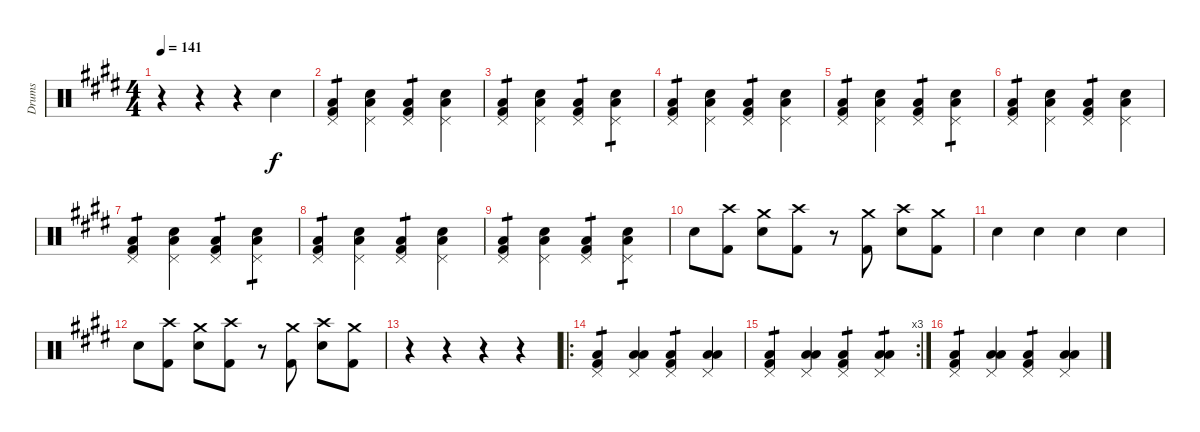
\track ("Drums" "Drums") {instrument percussion}
\staff {score}
\articulation defaults
\ts (4 4)
\tempo 141
\clef neutral
\ks e
r.4{dy f} r.4 r.4 "Snare (hit) 2".4 |
("Kick (hit) 2" "Pedal Hi-Hat (hit)" "Low Floor Tom (hit)").4{tp 1} ("Snare (hit) 2" "Pedal Hi-Hat (hit)" "Low Floor Tom (hit)").4 ("Kick (hit) 2" "Pedal Hi-Hat (hit)" "Low Floor Tom (hit)").4{tp 1} ("Snare (hit) 2" "Pedal Hi-Hat (hit)" "Low Floor Tom (hit)").4 |
("Kick (hit) 2" "Pedal Hi-Hat (hit)" "Low Floor Tom (hit)").4{tp 1} ("Snare (hit) 2" "Pedal Hi-Hat (hit)" "Low Floor Tom (hit)").4 ("Kick (hit) 2" "Pedal Hi-Hat (hit)" "Low Floor Tom (hit)").4{tp 1} ("Snare (hit) 2" "Pedal Hi-Hat (hit)" "Low Floor Tom (hit)").4{tp 1} |
("Kick (hit) 2" "Pedal Hi-Hat (hit)" "Low Floor Tom (hit)").4{tp 1} ("Snare (hit) 2" "Pedal Hi-Hat (hit)" "Low Floor Tom (hit)").4 ("Kick (hit) 2" "Pedal Hi-Hat (hit)" "Low Floor Tom (hit)").4{tp 1} ("Snare (hit) 2" "Pedal Hi-Hat (hit)" "Low Floor Tom (hit)").4 |
("Kick (hit) 2" "Pedal Hi-Hat (hit)" "Low Floor Tom (hit)").4{tp 1} ("Snare (hit) 2" "Pedal Hi-Hat (hit)" "Low Floor Tom (hit)").4 ("Kick (hit) 2" "Pedal Hi-Hat (hit)" "Low Floor Tom (hit)").4{tp 1} ("Snare (hit) 2" "Pedal Hi-Hat (hit)" "Low Floor Tom (hit)").4{tp 1} |
("Kick (hit) 2" "Pedal Hi-Hat (hit)" "Low Floor Tom (hit)").4{tp 1} ("Snare (hit) 2" "Pedal Hi-Hat (hit)" "Low Floor Tom (hit)").4 ("Kick (hit) 2" "Pedal Hi-Hat (hit)" "Low Floor Tom (hit)").4{tp 1} ("Snare (hit) 2" "Pedal Hi-Hat (hit)" "Low Floor Tom (hit)").4 |
("Kick (hit) 2" "Pedal Hi-Hat (hit)" "Low Floor Tom (hit)").4{tp 1} ("Snare (hit) 2" "Pedal Hi-Hat (hit)" "Low Floor Tom (hit)").4 ("Kick (hit) 2" "Pedal Hi-Hat (hit)" "Low Floor Tom (hit)").4{tp 1} ("Snare (hit) 2" "Pedal Hi-Hat (hit)" "Low Floor Tom (hit)").4{tp 1} |
("Kick (hit) 2" "Pedal Hi-Hat (hit)" "Low Floor Tom (hit)").4{tp 1} ("Snare (hit) 2" "Pedal Hi-Hat (hit)" "Low Floor Tom (hit)").4 ("Kick (hit) 2" "Pedal Hi-Hat (hit)" "Low Floor Tom (hit)").4{tp 1} ("Snare (hit) 2" "Pedal Hi-Hat (hit)" "Low Floor Tom (hit)").4 |
("Kick (hit) 2" "Pedal Hi-Hat (hit)" "Low Floor Tom (hit)").4{tp 1} ("Snare (hit) 2" "Pedal Hi-Hat (hit)" "Low Floor Tom (hit)").4 ("Kick (hit) 2" "Pedal Hi-Hat (hit)" "Low Floor Tom (hit)").4{tp 1} ("Snare (hit) 2" "Pedal Hi-Hat (hit)" "Low Floor Tom (hit)").4{tp 1} |
"Snare (hit) 2".8 ("Kick (hit) 2" "Crash high (hit)").8 ("Snare (hit) 2" "Crash medium (hit)").8 ("Kick (hit) 2" "Crash high (hit)").8 r.8 ("Kick (hit) 2" "Crash medium (hit)").8 ("Snare (hit) 2" "Crash high (hit)").8 ("Kick (hit) 2" "Crash medium (hit)").8 |
"Snare (hit) 2".4 "Snare (hit) 2".4 "Snare (hit) 2".4 "Snare (hit) 2".4 |
"Snare (hit) 2".8 ("Kick (hit) 2" "Crash high (hit)").8 ("Snare (hit) 2" "Crash medium (hit)").8 ("Kick (hit) 2" "Crash high (hit)").8 r.8 ("Kick (hit) 2" "Crash medium (hit)").8 ("Snare (hit) 2" "Crash high (hit)").8 ("Kick (hit) 2" "Crash medium (hit)").8 |
r.4 r.4 r.4 r.4 |
\ro
("Kick (hit) 2" "Pedal Hi-Hat (hit)" "Low Floor Tom (hit)").4{tp 1} ("Low Floor Tom (hit)" "Pedal Hi-Hat (hit)" "Low Floor Tom (hit)").4 ("Kick (hit) 2" "Pedal Hi-Hat (hit)" "Low Floor Tom (hit)").4{tp 1} ("Low Floor Tom (hit)" "Pedal Hi-Hat (hit)" "Low Floor Tom (hit)").4 |
\rc 3
("Kick (hit) 2" "Pedal Hi-Hat (hit)" "Low Floor Tom (hit)").4{tp 1} ("Low Floor Tom (hit)" "Pedal Hi-Hat (hit)" "Low Floor Tom (hit)").4 ("Kick (hit) 2" "Pedal Hi-Hat (hit)" "Low Floor Tom (hit)").4{tp 1} ("Low Floor Tom (hit)" "Pedal Hi-Hat (hit)" "Low Floor Tom (hit)").4{tp 1} |
("Kick (hit) 2" "Pedal Hi-Hat (hit)" "Low Floor Tom (hit)").4{tp 1} ("Low Floor Tom (hit)" "Pedal Hi-Hat (hit)" "Low Floor Tom (hit)").4 ("Kick (hit) 2" "Pedal Hi-Hat (hit)" "Low Floor Tom (hit)").4{tp 1} ("Low Floor Tom (hit)" "Pedal Hi-Hat (hit)" "Low Floor Tom (hit)").4
